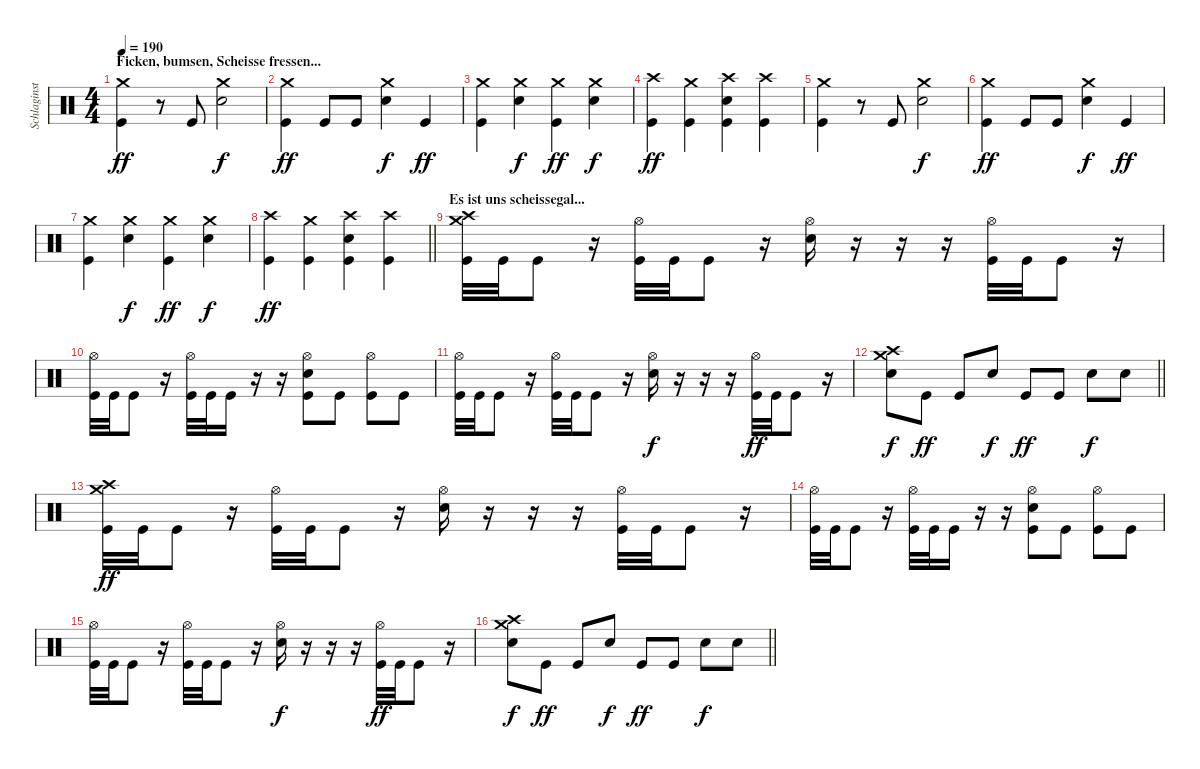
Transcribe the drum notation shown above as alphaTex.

\track ("Schlaginstrumente - Auswahl" "Schlaginst") {instrument percussion}
\staff {score}
\articulation defaults
\ts (4 4)
\section ("" "Ficken, bumsen, Scheisse fressen...")
\tempo 190
\clef neutral
\ks c
("Crash medium (hit)" "Kick (hit)").4{dy ff} r.8 "Kick (hit)".8 ("Crash medium (hit)" "Electric Snare (hit)").2{dy f} |
("Crash medium (hit)" "Kick (hit)").4{dy ff} "Kick (hit)".8 "Kick (hit)".8 ("Crash medium (hit)" "Electric Snare (hit)").4{dy f} "Kick (hit)".4{dy ff} |
("Crash medium (hit)" "Kick (hit)").4 ("Crash medium (hit)" "Electric Snare (hit)").4{dy f} ("Crash medium (hit)" "Kick (hit)").4{dy ff} ("Crash medium (hit)" "Electric Snare (hit)").4{dy f} |
("Crash high (hit)" "Kick (hit)").4{dy ff} ("Crash medium (hit)" "Kick (hit)").4 ("Crash high (hit)" "Electric Snare (hit)" "Kick (hit)").4 ("Crash high (hit)" "Kick (hit)").4 |
("Crash medium (hit)" "Kick (hit)").4 r.8 "Kick (hit)".8 ("Crash medium (hit)" "Electric Snare (hit)").2{dy f} |
("Crash medium (hit)" "Kick (hit)").4{dy ff} "Kick (hit)".8 "Kick (hit)".8 ("Crash medium (hit)" "Electric Snare (hit)").4{dy f} "Kick (hit)".4{dy ff} |
("Crash medium (hit)" "Kick (hit)").4 ("Crash medium (hit)" "Electric Snare (hit)").4{dy f} ("Crash medium (hit)" "Kick (hit)").4{dy ff} ("Crash medium (hit)" "Electric Snare (hit)").4{dy f} |
\barLineRight lightlight
("Crash high (hit)" "Kick (hit)").4{dy ff} ("Crash medium (hit)" "Kick (hit)").4 ("Crash high (hit)" "Electric Snare (hit)" "Kick (hit)").4 ("Crash high (hit)" "Kick (hit)").4 |
\section ("" "Es ist uns scheissegal...")
("Crash high (hit)" "Crash medium (hit)" "Kick (hit)").32 "Kick (hit)".32 "Kick (hit)".8 r.16 ("Hi-Hat (open)" "Kick (hit)").32 "Kick (hit)".32 "Kick (hit)".8 r.16 ("Hi-Hat (open)" "Electric Snare (hit)").16 r.16 r.16 r.16 ("Hi-Hat (open)" "Kick (hit)").32 "Kick (hit)".32 "Kick (hit)".8 r.16 |
("Hi-Hat (open)" "Kick (hit)").32 "Kick (hit)".32 "Kick (hit)".8 r.16 ("Hi-Hat (open)" "Kick (hit)").32 "Kick (hit)".32 "Kick (hit)".16 r.16 r.16 ("Hi-Hat (open)" "Electric Snare (hit)" "Kick (hit)").8 "Kick (hit)".8 ("Hi-Hat (open)" "Kick (hit)").8 "Kick (hit)".8 |
("Hi-Hat (open)" "Kick (hit)").32 "Kick (hit)".32 "Kick (hit)".8 r.16 ("Hi-Hat (open)" "Kick (hit)").32 "Kick (hit)".32 "Kick (hit)".8 r.16 ("Hi-Hat (open)" "Electric Snare (hit)").16{dy f} r.16 r.16 r.16 ("Hi-Hat (open)" "Kick (hit)").32{dy ff} "Kick (hit)".32 "Kick (hit)".8 r.16 |
\barLineRight lightlight
("Crash medium (hit)" "Electric Snare (hit)" "Crash high (hit)").8{dy f} "Kick (hit)".8{dy ff} "Kick (hit)".8 "Electric Snare (hit)".8{dy f} "Kick (hit)".8{dy ff} "Kick (hit)".8 "Electric Snare (hit)".8{dy f} "Electric Snare (hit)".8 |
("Crash high (hit)" "Crash medium (hit)" "Kick (hit)").32{dy ff} "Kick (hit)".32 "Kick (hit)".8 r.16 ("Hi-Hat (open)" "Kick (hit)").32 "Kick (hit)".32 "Kick (hit)".8 r.16 ("Hi-Hat (open)" "Electric Snare (hit)").16 r.16 r.16 r.16 ("Hi-Hat (open)" "Kick (hit)").32 "Kick (hit)".32 "Kick (hit)".8 r.16 |
("Hi-Hat (open)" "Kick (hit)").32 "Kick (hit)".32 "Kick (hit)".8 r.16 ("Hi-Hat (open)" "Kick (hit)").32 "Kick (hit)".32 "Kick (hit)".16 r.16 r.16 ("Hi-Hat (open)" "Electric Snare (hit)" "Kick (hit)").8 "Kick (hit)".8 ("Hi-Hat (open)" "Kick (hit)").8 "Kick (hit)".8 |
("Hi-Hat (open)" "Kick (hit)").32 "Kick (hit)".32 "Kick (hit)".8 r.16 ("Hi-Hat (open)" "Kick (hit)").32 "Kick (hit)".32 "Kick (hit)".8 r.16 ("Hi-Hat (open)" "Electric Snare (hit)").16{dy f} r.16 r.16 r.16 ("Hi-Hat (open)" "Kick (hit)").32{dy ff} "Kick (hit)".32 "Kick (hit)".8 r.16 |
\barLineRight lightlight
("Crash medium (hit)" "Electric Snare (hit)" "Crash high (hit)").8{dy f} "Kick (hit)".8{dy ff} "Kick (hit)".8 "Electric Snare (hit)".8{dy f} "Kick (hit)".8{dy ff} "Kick (hit)".8 "Electric Snare (hit)".8{dy f} "Electric Snare (hit)".8
